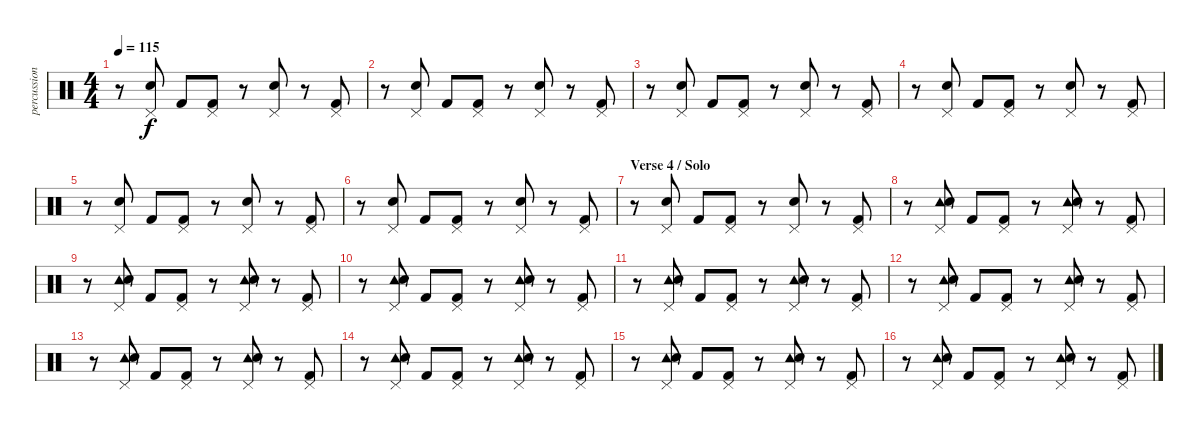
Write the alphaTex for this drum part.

\track ("percussion - vom" "percussion") {instrument percussion}
\staff {score}
\articulation defaults
\ts (4 4)
\tempo 115
\clef neutral
\ks c
r.8{dy f} ("Pedal Hi-Hat (hit)" "Snare (hit) 2").8 "Kick (hit) 2".8 ("Pedal Hi-Hat (hit)" "Kick (hit) 2").8 r.8 ("Pedal Hi-Hat (hit)" "Snare (hit) 2").8 r.8 ("Pedal Hi-Hat (hit)" "Kick (hit) 2").8 |
r.8 ("Pedal Hi-Hat (hit)" "Snare (hit) 2").8 "Kick (hit) 2".8 ("Pedal Hi-Hat (hit)" "Kick (hit) 2").8 r.8 ("Pedal Hi-Hat (hit)" "Snare (hit) 2").8 r.8 ("Pedal Hi-Hat (hit)" "Kick (hit) 2").8 |
r.8 ("Pedal Hi-Hat (hit)" "Snare (hit) 2").8 "Kick (hit) 2".8 ("Pedal Hi-Hat (hit)" "Kick (hit) 2").8 r.8 ("Pedal Hi-Hat (hit)" "Snare (hit) 2").8 r.8 ("Pedal Hi-Hat (hit)" "Kick (hit) 2").8 |
r.8 ("Pedal Hi-Hat (hit)" "Snare (hit) 2").8 "Kick (hit) 2".8 ("Pedal Hi-Hat (hit)" "Kick (hit) 2").8 r.8 ("Pedal Hi-Hat (hit)" "Snare (hit) 2").8 r.8 ("Pedal Hi-Hat (hit)" "Kick (hit) 2").8 |
r.8 ("Pedal Hi-Hat (hit)" "Snare (hit) 2").8 "Kick (hit) 2".8 ("Pedal Hi-Hat (hit)" "Kick (hit) 2").8 r.8 ("Pedal Hi-Hat (hit)" "Snare (hit) 2").8 r.8 ("Pedal Hi-Hat (hit)" "Kick (hit) 2").8 |
r.8 ("Pedal Hi-Hat (hit)" "Snare (hit) 2").8 "Kick (hit) 2".8 ("Pedal Hi-Hat (hit)" "Kick (hit) 2").8 r.8 ("Pedal Hi-Hat (hit)" "Snare (hit) 2").8 r.8 ("Pedal Hi-Hat (hit)" "Kick (hit) 2").8 |
\section ("" "Verse 4 / Solo")
r.8 ("Pedal Hi-Hat (hit)" "Snare (hit) 2").8 "Kick (hit) 2".8 ("Pedal Hi-Hat (hit)" "Kick (hit) 2").8 r.8 ("Pedal Hi-Hat (hit)" "Snare (hit) 2").8 r.8 ("Pedal Hi-Hat (hit)" "Kick (hit) 2").8 |
r.8 ("Pedal Hi-Hat (hit)" "Tambourine (hit)" "Snare (hit) 2").8 "Kick (hit) 2".8 ("Pedal Hi-Hat (hit)" "Kick (hit) 2").8 r.8 ("Pedal Hi-Hat (hit)" "Tambourine (hit)" "Snare (hit) 2").8 r.8 ("Pedal Hi-Hat (hit)" "Kick (hit) 2").8 |
r.8 ("Pedal Hi-Hat (hit)" "Tambourine (hit)" "Snare (hit) 2").8 "Kick (hit) 2".8 ("Pedal Hi-Hat (hit)" "Kick (hit) 2").8 r.8 ("Pedal Hi-Hat (hit)" "Tambourine (hit)" "Snare (hit) 2").8 r.8 ("Pedal Hi-Hat (hit)" "Kick (hit) 2").8 |
r.8 ("Pedal Hi-Hat (hit)" "Tambourine (hit)" "Snare (hit) 2").8 "Kick (hit) 2".8 ("Pedal Hi-Hat (hit)" "Kick (hit) 2").8 r.8 ("Pedal Hi-Hat (hit)" "Tambourine (hit)" "Snare (hit) 2").8 r.8 ("Pedal Hi-Hat (hit)" "Kick (hit) 2").8 |
r.8 ("Pedal Hi-Hat (hit)" "Tambourine (hit)" "Snare (hit) 2").8 "Kick (hit) 2".8 ("Pedal Hi-Hat (hit)" "Kick (hit) 2").8 r.8 ("Pedal Hi-Hat (hit)" "Tambourine (hit)" "Snare (hit) 2").8 r.8 ("Pedal Hi-Hat (hit)" "Kick (hit) 2").8 |
r.8 ("Pedal Hi-Hat (hit)" "Tambourine (hit)" "Snare (hit) 2").8 "Kick (hit) 2".8 ("Pedal Hi-Hat (hit)" "Kick (hit) 2").8 r.8 ("Pedal Hi-Hat (hit)" "Tambourine (hit)" "Snare (hit) 2").8 r.8 ("Pedal Hi-Hat (hit)" "Kick (hit) 2").8 |
r.8 ("Pedal Hi-Hat (hit)" "Tambourine (hit)" "Snare (hit) 2").8 "Kick (hit) 2".8 ("Pedal Hi-Hat (hit)" "Kick (hit) 2").8 r.8 ("Pedal Hi-Hat (hit)" "Tambourine (hit)" "Snare (hit) 2").8 r.8 ("Pedal Hi-Hat (hit)" "Kick (hit) 2").8 |
r.8 ("Pedal Hi-Hat (hit)" "Tambourine (hit)" "Snare (hit) 2").8 "Kick (hit) 2".8 ("Pedal Hi-Hat (hit)" "Kick (hit) 2").8 r.8 ("Pedal Hi-Hat (hit)" "Tambourine (hit)" "Snare (hit) 2").8 r.8 ("Pedal Hi-Hat (hit)" "Kick (hit) 2").8 |
r.8 ("Pedal Hi-Hat (hit)" "Tambourine (hit)" "Snare (hit) 2").8 "Kick (hit) 2".8 ("Pedal Hi-Hat (hit)" "Kick (hit) 2").8 r.8 ("Pedal Hi-Hat (hit)" "Tambourine (hit)" "Snare (hit) 2").8 r.8 ("Pedal Hi-Hat (hit)" "Kick (hit) 2").8 |
r.8 ("Pedal Hi-Hat (hit)" "Tambourine (hit)" "Snare (hit) 2").8 "Kick (hit) 2".8 ("Pedal Hi-Hat (hit)" "Kick (hit) 2").8 r.8 ("Pedal Hi-Hat (hit)" "Tambourine (hit)" "Snare (hit) 2").8 r.8 ("Pedal Hi-Hat (hit)" "Kick (hit) 2").8
